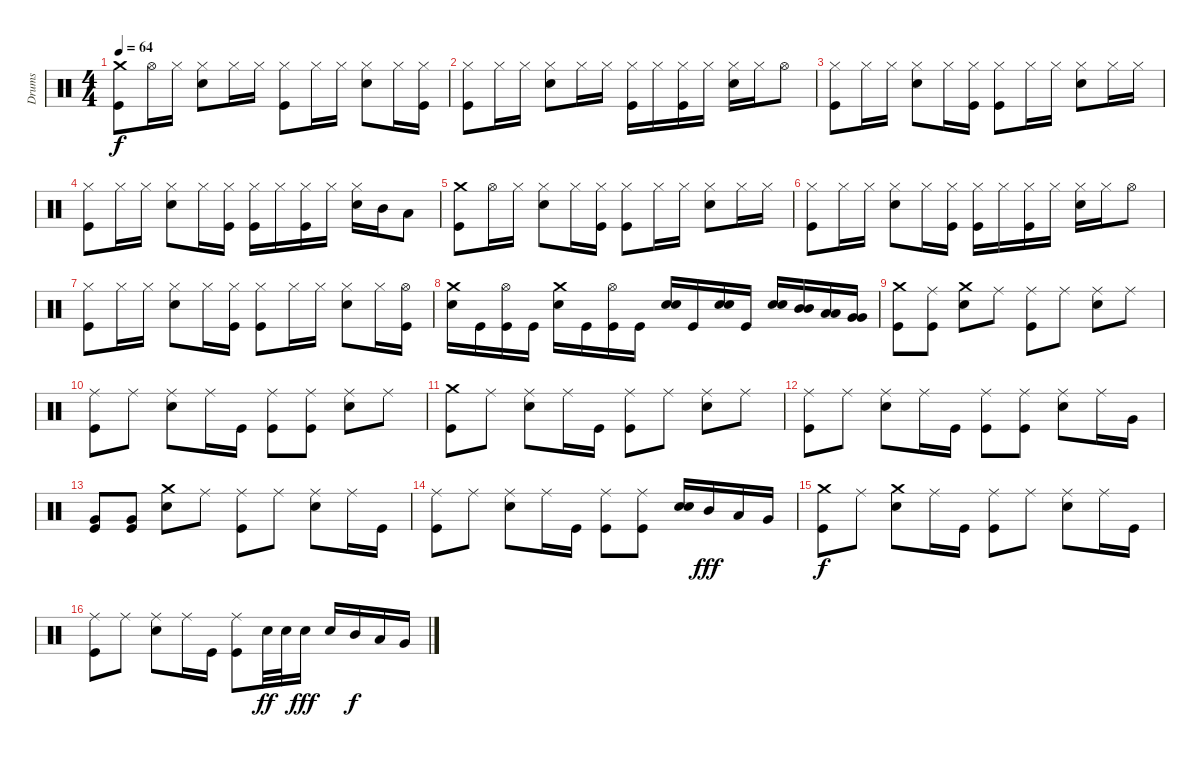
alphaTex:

\track ("Drums" "Drums") {instrument percussion}
\staff {score}
\articulation defaults
\ts (4 4)
\tempo 64
\clef neutral
\ks c
("Crash medium (hit)" "Kick (hit)").8{dy f} "Hi-Hat (open)".16 "Hi-Hat (closed)".16 ("Hi-Hat (closed)" "Snare (hit) 2").8 "Hi-Hat (closed)".16 "Hi-Hat (closed)".16 ("Hi-Hat (closed)" "Kick (hit)").8 "Hi-Hat (closed)".16 "Hi-Hat (closed)".16 ("Hi-Hat (closed)" "Snare (hit) 2").8 "Hi-Hat (closed)".16 ("Hi-Hat (closed)" "Kick (hit)").16 |
("Hi-Hat (closed)" "Kick (hit)").8 "Hi-Hat (closed)".16 "Hi-Hat (closed)".16 ("Hi-Hat (closed)" "Snare (hit) 2").8 "Hi-Hat (closed)".16 "Hi-Hat (closed)".16 ("Hi-Hat (closed)" "Kick (hit)").16 "Hi-Hat (closed)".16 ("Hi-Hat (closed)" "Kick (hit)").16 "Hi-Hat (closed)".16 ("Hi-Hat (closed)" "Snare (hit) 2").16 "Hi-Hat (closed)".16 "Hi-Hat (open)".8 |
("Hi-Hat (closed)" "Kick (hit)").8 "Hi-Hat (closed)".16 "Hi-Hat (closed)".16 ("Hi-Hat (closed)" "Snare (hit) 2").8 "Hi-Hat (closed)".16 ("Hi-Hat (closed)" "Kick (hit)").16 ("Hi-Hat (closed)" "Kick (hit)").8 "Hi-Hat (closed)".16 "Hi-Hat (closed)".16 ("Hi-Hat (closed)" "Snare (hit) 2").8 "Hi-Hat (closed)".16 "Hi-Hat (closed)".16 |
("Hi-Hat (closed)" "Kick (hit)").8 "Hi-Hat (closed)".16 "Hi-Hat (closed)".16 ("Hi-Hat (closed)" "Snare (hit) 2").8 "Hi-Hat (closed)".16 ("Hi-Hat (closed)" "Kick (hit)").16 ("Hi-Hat (closed)" "Kick (hit)").16 "Hi-Hat (closed)".16 ("Hi-Hat (closed)" "Kick (hit)").16 "Hi-Hat (closed)".16 ("Hi-Hat (closed)" "Snare (hit) 2").16 "Mid Tom (hit)".16 "Low Tom (hit)".8 |
("Crash medium (hit)" "Kick (hit)").8 "Hi-Hat (open)".16 "Hi-Hat (closed)".16 ("Hi-Hat (closed)" "Snare (hit) 2").8 "Hi-Hat (closed)".16 ("Hi-Hat (closed)" "Kick (hit)").16 ("Hi-Hat (closed)" "Kick (hit)").8 "Hi-Hat (closed)".16 "Hi-Hat (closed)".16 ("Hi-Hat (closed)" "Snare (hit) 2").8 "Hi-Hat (closed)".16 "Hi-Hat (closed)".16 |
("Hi-Hat (closed)" "Kick (hit)").8 "Hi-Hat (closed)".16 "Hi-Hat (closed)".16 ("Hi-Hat (closed)" "Snare (hit) 2").8 "Hi-Hat (closed)".16 ("Hi-Hat (closed)" "Kick (hit)").16 ("Hi-Hat (closed)" "Kick (hit)").16 "Hi-Hat (closed)".16 ("Hi-Hat (closed)" "Kick (hit)").16 "Hi-Hat (closed)".16 ("Hi-Hat (closed)" "Snare (hit) 2").16 "Hi-Hat (closed)".16 "Hi-Hat (open)".8 |
("Hi-Hat (closed)" "Kick (hit)").8 "Hi-Hat (closed)".16 "Hi-Hat (closed)".16 ("Hi-Hat (closed)" "Snare (hit) 2").8 "Hi-Hat (closed)".16 ("Hi-Hat (closed)" "Kick (hit)").16 ("Hi-Hat (closed)" "Kick (hit)").8 "Hi-Hat (closed)".16 "Hi-Hat (closed)".16 ("Hi-Hat (closed)" "Snare (hit) 2").8 "Hi-Hat (closed)".16 ("Hi-Hat (open)" "Kick (hit)").16 |
("Crash medium (hit)" "Snare (hit) 2").16 "Kick (hit)".16 ("Hi-Hat (open)" "Kick (hit)").16 "Kick (hit)".16 ("Crash medium (hit)" "Snare (hit) 2").16 "Kick (hit)".16 ("Hi-Hat (open)" "Kick (hit)").16 "Kick (hit)".16 ("Snare (hit) 2" "Snare (hit) 2").16 "Kick (hit)".16 ("Snare (hit) 2" "Snare (hit) 2").16 "Kick (hit)".16 ("Snare (hit) 2" "Snare (hit) 2").16 ("Mid Tom (hit)" "Mid Tom (hit)").16 ("Low Tom (hit)" "Low Tom (hit)").16 ("Very Low Tom (hit)" "Very Low Tom (hit)").16 |
("Crash medium (hit)" "Kick (hit)").8 ("Ride (middle)" "Kick (hit)").8 ("Crash medium (hit)" "Snare (hit) 2").8 "Ride (middle)".8 ("Ride (middle)" "Kick (hit)").8 "Ride (middle)".8 ("Ride (middle)" "Snare (hit) 2").8 "Ride (middle)".8 |
("Ride (middle)" "Kick (hit)").8 "Ride (middle)".8 ("Ride (middle)" "Snare (hit) 2").8 "Ride (middle)".16 "Kick (hit)".16 ("Ride (middle)" "Kick (hit)").8 ("Ride (middle)" "Kick (hit)").8 ("Ride (middle)" "Snare (hit) 2").8 "Ride (middle)".8 |
("Crash medium (hit)" "Kick (hit)").8 "Ride (middle)".8 ("Ride (middle)" "Snare (hit) 2").8 "Ride (middle)".16 "Kick (hit)".16 ("Ride (middle)" "Kick (hit)").8 "Ride (middle)".8 ("Ride (middle)" "Snare (hit) 2").8 "Ride (middle)".8 |
("Ride (middle)" "Kick (hit)").8 "Ride (middle)".8 ("Ride (middle)" "Snare (hit) 2").8 "Ride (middle)".16 "Kick (hit)".16 ("Ride (middle)" "Kick (hit)").8 ("Ride (middle)" "Kick (hit)").8 ("Ride (middle)" "Snare (hit) 2").8 "Ride (middle)".16 "Very Low Tom (hit)".16 |
("Very Low Tom (hit)" "Kick (hit)").8 ("Very Low Tom (hit)" "Kick (hit)").8 ("Crash medium (hit)" "Snare (hit) 2").8 "Ride (middle)".8 ("Ride (middle)" "Kick (hit)").8 "Ride (middle)".8 ("Ride (middle)" "Snare (hit) 2").8 "Ride (middle)".16 "Kick (hit)".16 |
("Ride (middle)" "Kick (hit)").8 "Ride (middle)".8 ("Ride (middle)" "Snare (hit) 2").8 "Ride (middle)".16 "Kick (hit)".16 ("Ride (middle)" "Kick (hit)").8 ("Ride (middle)" "Kick (hit)").8 ("Snare (hit) 2" "Snare (hit) 2").16 "Mid Tom (hit)".16{dy fff} "Low Tom (hit)".16 "Very Low Tom (hit)".16 |
("Crash medium (hit)" "Kick (hit)").8{dy f} "Ride (middle)".8 ("Crash medium (hit)" "Snare (hit) 2").8 "Ride (middle)".16 "Kick (hit)".16 ("Ride (middle)" "Kick (hit)").8 "Ride (middle)".8 ("Ride (middle)" "Snare (hit) 2").8 "Ride (middle)".16 "Kick (hit)".16 |
("Ride (middle)" "Kick (hit)").8 "Ride (middle)".8 ("Ride (middle)" "Snare (hit) 2").8 "Ride (middle)".16 "Kick (hit)".16 ("Ride (middle)" "Kick (hit)").8 "Snare (hit) 2".32{dy ff} "Snare (hit) 2".32 "Snare (hit) 2".16{dy fff} "Snare (hit) 2".16 "Mid Tom (hit)".16{dy f} "Low Tom (hit)".16 "Very Low Tom (hit)".16
